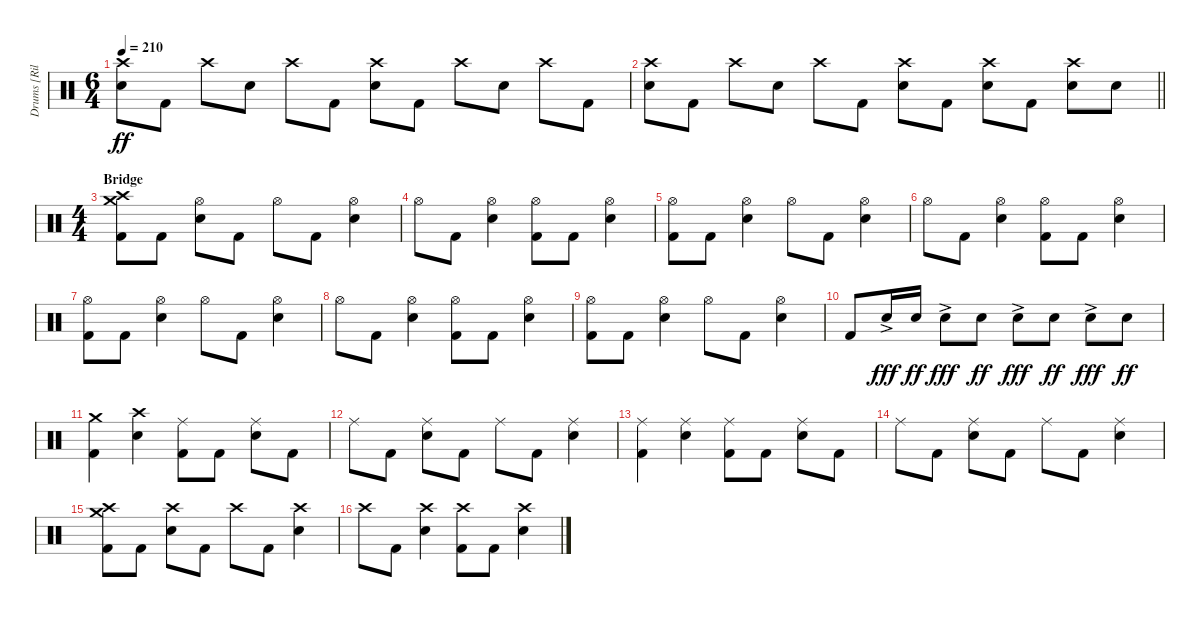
\track ("Drums [Riley]" "Drums [Ril") {instrument percussion}
\staff {score}
\articulation defaults
\ts (6 4)
\tempo 210
\clef neutral
\ks c
("Crash high (hit)" "Electric Snare (hit)").8{dy ff} "Kick (hit) 2".8 "Crash high (hit)".8 "Electric Snare (hit)".8 "Crash high (hit)".8 "Kick (hit) 2".8 ("Crash high (hit)" "Electric Snare (hit)").8 "Kick (hit) 2".8 "Crash high (hit)".8 "Electric Snare (hit)".8 "Crash high (hit)".8 "Kick (hit) 2".8 |
\barLineRight lightlight
("Crash high (hit)" "Electric Snare (hit)").8 "Kick (hit) 2".8 "Crash high (hit)".8 "Electric Snare (hit)".8 "Crash high (hit)".8 "Kick (hit) 2".8 ("Crash high (hit)" "Electric Snare (hit)").8 "Kick (hit) 2".8 ("Crash high (hit)" "Electric Snare (hit)").8 "Kick (hit) 2".8 ("Crash high (hit)" "Electric Snare (hit)").8 "Electric Snare (hit)".8 |
\ts (4 4)
\section ("" "Bridge")
("Crash medium (hit)" "Crash high (hit)" "Kick (hit) 2").8 "Kick (hit) 2".8 ("Hi-Hat (open)" "Electric Snare (hit)").8 "Kick (hit) 2".8 "Hi-Hat (open)".8 "Kick (hit) 2".8 ("Hi-Hat (open)" "Electric Snare (hit)").4 |
"Hi-Hat (open)".8 "Kick (hit) 2".8 ("Hi-Hat (open)" "Electric Snare (hit)").4 ("Hi-Hat (open)" "Kick (hit) 2").8 "Kick (hit) 2".8 ("Hi-Hat (open)" "Electric Snare (hit)").4 |
("Hi-Hat (open)" "Kick (hit) 2").8 "Kick (hit) 2".8 ("Hi-Hat (open)" "Electric Snare (hit)").4 "Hi-Hat (open)".8 "Kick (hit) 2".8 ("Hi-Hat (open)" "Electric Snare (hit)").4 |
"Hi-Hat (open)".8 "Kick (hit) 2".8 ("Hi-Hat (open)" "Electric Snare (hit)").4 ("Hi-Hat (open)" "Kick (hit) 2").8 "Kick (hit) 2".8 ("Hi-Hat (open)" "Electric Snare (hit)").4 |
("Hi-Hat (open)" "Kick (hit) 2").8 "Kick (hit) 2".8 ("Hi-Hat (open)" "Electric Snare (hit)").4 "Hi-Hat (open)".8 "Kick (hit) 2".8 ("Hi-Hat (open)" "Electric Snare (hit)").4 |
"Hi-Hat (open)".8 "Kick (hit) 2".8 ("Hi-Hat (open)" "Electric Snare (hit)").4 ("Hi-Hat (open)" "Kick (hit) 2").8 "Kick (hit) 2".8 ("Hi-Hat (open)" "Electric Snare (hit)").4 |
("Hi-Hat (open)" "Kick (hit) 2").8 "Kick (hit) 2".8 ("Hi-Hat (open)" "Electric Snare (hit)").4 "Hi-Hat (open)".8 "Kick (hit) 2".8 ("Hi-Hat (open)" "Electric Snare (hit)").4 |
"Kick (hit) 2".8 "Electric Snare (hit)"{ac}.16{dy fff} "Electric Snare (hit)".16{dy ff} "Electric Snare (hit)"{ac}.8{dy fff} "Electric Snare (hit)".8{dy ff} "Electric Snare (hit)"{ac}.8{dy fff} "Electric Snare (hit)".8{dy ff} "Electric Snare (hit)"{ac}.8{dy fff} "Electric Snare (hit)".8{dy ff} |
("Crash medium (hit)" "Kick (hit) 2").4 ("Crash high (hit)" "Electric Snare (hit)").4 ("Ride (middle)" "Kick (hit) 2").8 "Kick (hit) 2".8 ("Ride (middle)" "Electric Snare (hit)").8 "Kick (hit) 2".8 |
"Ride (middle)".8 "Kick (hit) 2".8 ("Ride (middle)" "Electric Snare (hit)").8 "Kick (hit) 2".8 "Ride (middle)".8 "Kick (hit) 2".8 ("Ride (middle)" "Electric Snare (hit)").4 |
("Ride (middle)" "Kick (hit) 2").4 ("Ride (middle)" "Electric Snare (hit)").4 ("Ride (middle)" "Kick (hit) 2").8 "Kick (hit) 2".8 ("Ride (middle)" "Electric Snare (hit)").8 "Kick (hit) 2".8 |
"Ride (middle)".8 "Kick (hit) 2".8 ("Ride (middle)" "Electric Snare (hit)").8 "Kick (hit) 2".8 "Ride (middle)".8 "Kick (hit) 2".8 ("Ride (middle)" "Electric Snare (hit)").4 |
("Crash medium (hit)" "Crash high (hit)" "Kick (hit) 2").8 "Kick (hit) 2".8 ("Crash high (hit)" "Electric Snare (hit)").8 "Kick (hit) 2".8 "Crash high (hit)".8 "Kick (hit) 2".8 ("Crash high (hit)" "Electric Snare (hit)").4 |
"Crash high (hit)".8 "Kick (hit) 2".8 ("Crash high (hit)" "Electric Snare (hit)").4 ("Crash high (hit)" "Kick (hit) 2").8 "Kick (hit) 2".8 ("Crash high (hit)" "Electric Snare (hit)").4
